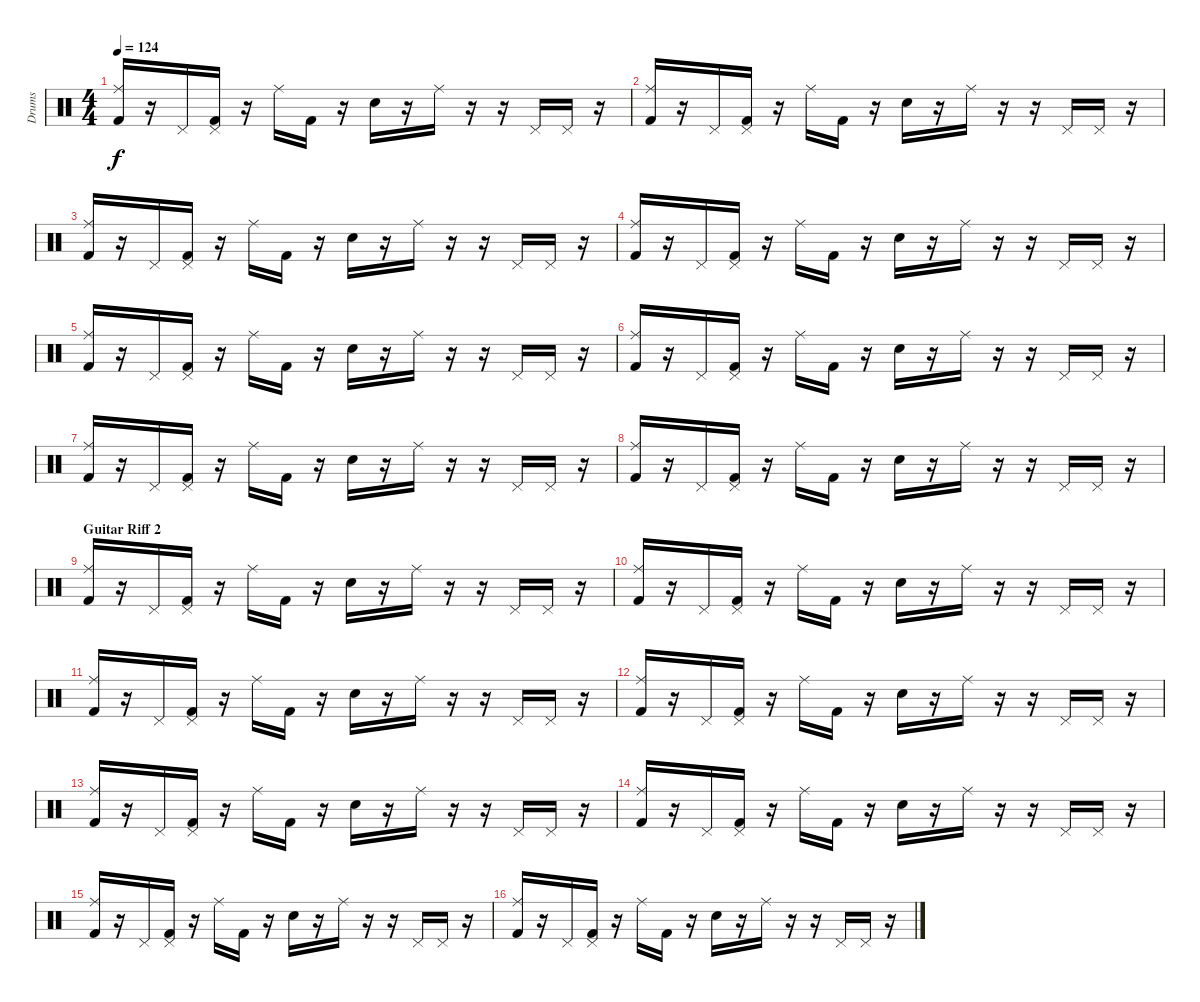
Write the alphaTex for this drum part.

\track ("Drums" "Drums") {instrument percussion}
\staff {score}
\articulation defaults
\ts (4 4)
\tempo 124
\clef neutral
\ks c
("Ride (middle)" "Kick (hit) 2").16{dy f} r.16 "Pedal Hi-Hat (hit)".16 ("Pedal Hi-Hat (hit)" "Kick (hit) 2").16 r.16 "Ride (middle)".16 "Kick (hit) 2".16 r.16 "Electric Snare (hit)".16 r.16 "Ride (middle)".16 r.16 r.16 "Pedal Hi-Hat (hit)".16 "Pedal Hi-Hat (hit)".16 r.16 |
("Ride (middle)" "Kick (hit) 2").16 r.16 "Pedal Hi-Hat (hit)".16 ("Pedal Hi-Hat (hit)" "Kick (hit) 2").16 r.16 "Ride (middle)".16 "Kick (hit) 2".16 r.16 "Electric Snare (hit)".16 r.16 "Ride (middle)".16 r.16 r.16 "Pedal Hi-Hat (hit)".16 "Pedal Hi-Hat (hit)".16 r.16 |
("Ride (middle)" "Kick (hit) 2").16 r.16 "Pedal Hi-Hat (hit)".16 ("Pedal Hi-Hat (hit)" "Kick (hit) 2").16 r.16 "Ride (middle)".16 "Kick (hit) 2".16 r.16 "Electric Snare (hit)".16 r.16 "Ride (middle)".16 r.16 r.16 "Pedal Hi-Hat (hit)".16 "Pedal Hi-Hat (hit)".16 r.16 |
("Ride (middle)" "Kick (hit) 2").16 r.16 "Pedal Hi-Hat (hit)".16 ("Pedal Hi-Hat (hit)" "Kick (hit) 2").16 r.16 "Ride (middle)".16 "Kick (hit) 2".16 r.16 "Electric Snare (hit)".16 r.16 "Ride (middle)".16 r.16 r.16 "Pedal Hi-Hat (hit)".16 "Pedal Hi-Hat (hit)".16 r.16 |
("Ride (middle)" "Kick (hit) 2").16 r.16 "Pedal Hi-Hat (hit)".16 ("Pedal Hi-Hat (hit)" "Kick (hit) 2").16 r.16 "Ride (middle)".16 "Kick (hit) 2".16 r.16 "Electric Snare (hit)".16 r.16 "Ride (middle)".16 r.16 r.16 "Pedal Hi-Hat (hit)".16 "Pedal Hi-Hat (hit)".16 r.16 |
("Ride (middle)" "Kick (hit) 2").16 r.16 "Pedal Hi-Hat (hit)".16 ("Pedal Hi-Hat (hit)" "Kick (hit) 2").16 r.16 "Ride (middle)".16 "Kick (hit) 2".16 r.16 "Electric Snare (hit)".16 r.16 "Ride (middle)".16 r.16 r.16 "Pedal Hi-Hat (hit)".16 "Pedal Hi-Hat (hit)".16 r.16 |
("Ride (middle)" "Kick (hit) 2").16 r.16 "Pedal Hi-Hat (hit)".16 ("Pedal Hi-Hat (hit)" "Kick (hit) 2").16 r.16 "Ride (middle)".16 "Kick (hit) 2".16 r.16 "Electric Snare (hit)".16 r.16 "Ride (middle)".16 r.16 r.16 "Pedal Hi-Hat (hit)".16 "Pedal Hi-Hat (hit)".16 r.16 |
("Ride (middle)" "Kick (hit) 2").16 r.16 "Pedal Hi-Hat (hit)".16 ("Pedal Hi-Hat (hit)" "Kick (hit) 2").16 r.16 "Ride (middle)".16 "Kick (hit) 2".16 r.16 "Electric Snare (hit)".16 r.16 "Ride (middle)".16 r.16 r.16 "Pedal Hi-Hat (hit)".16 "Pedal Hi-Hat (hit)".16 r.16 |
\section ("" "Guitar Riff 2")
("Ride (middle)" "Kick (hit) 2").16 r.16 "Pedal Hi-Hat (hit)".16 ("Pedal Hi-Hat (hit)" "Kick (hit) 2").16 r.16 "Ride (middle)".16 "Kick (hit) 2".16 r.16 "Electric Snare (hit)".16 r.16 "Ride (middle)".16 r.16 r.16 "Pedal Hi-Hat (hit)".16 "Pedal Hi-Hat (hit)".16 r.16 |
("Ride (middle)" "Kick (hit) 2").16 r.16 "Pedal Hi-Hat (hit)".16 ("Pedal Hi-Hat (hit)" "Kick (hit) 2").16 r.16 "Ride (middle)".16 "Kick (hit) 2".16 r.16 "Electric Snare (hit)".16 r.16 "Ride (middle)".16 r.16 r.16 "Pedal Hi-Hat (hit)".16 "Pedal Hi-Hat (hit)".16 r.16 |
("Ride (middle)" "Kick (hit) 2").16 r.16 "Pedal Hi-Hat (hit)".16 ("Pedal Hi-Hat (hit)" "Kick (hit) 2").16 r.16 "Ride (middle)".16 "Kick (hit) 2".16 r.16 "Electric Snare (hit)".16 r.16 "Ride (middle)".16 r.16 r.16 "Pedal Hi-Hat (hit)".16 "Pedal Hi-Hat (hit)".16 r.16 |
("Ride (middle)" "Kick (hit) 2").16 r.16 "Pedal Hi-Hat (hit)".16 ("Pedal Hi-Hat (hit)" "Kick (hit) 2").16 r.16 "Ride (middle)".16 "Kick (hit) 2".16 r.16 "Electric Snare (hit)".16 r.16 "Ride (middle)".16 r.16 r.16 "Pedal Hi-Hat (hit)".16 "Pedal Hi-Hat (hit)".16 r.16 |
("Ride (middle)" "Kick (hit) 2").16 r.16 "Pedal Hi-Hat (hit)".16 ("Pedal Hi-Hat (hit)" "Kick (hit) 2").16 r.16 "Ride (middle)".16 "Kick (hit) 2".16 r.16 "Electric Snare (hit)".16 r.16 "Ride (middle)".16 r.16 r.16 "Pedal Hi-Hat (hit)".16 "Pedal Hi-Hat (hit)".16 r.16 |
("Ride (middle)" "Kick (hit) 2").16 r.16 "Pedal Hi-Hat (hit)".16 ("Pedal Hi-Hat (hit)" "Kick (hit) 2").16 r.16 "Ride (middle)".16 "Kick (hit) 2".16 r.16 "Electric Snare (hit)".16 r.16 "Ride (middle)".16 r.16 r.16 "Pedal Hi-Hat (hit)".16 "Pedal Hi-Hat (hit)".16 r.16 |
("Ride (middle)" "Kick (hit) 2").16 r.16 "Pedal Hi-Hat (hit)".16 ("Pedal Hi-Hat (hit)" "Kick (hit) 2").16 r.16 "Ride (middle)".16 "Kick (hit) 2".16 r.16 "Electric Snare (hit)".16 r.16 "Ride (middle)".16 r.16 r.16 "Pedal Hi-Hat (hit)".16 "Pedal Hi-Hat (hit)".16 r.16 |
("Ride (middle)" "Kick (hit) 2").16 r.16 "Pedal Hi-Hat (hit)".16 ("Pedal Hi-Hat (hit)" "Kick (hit) 2").16 r.16 "Ride (middle)".16 "Kick (hit) 2".16 r.16 "Electric Snare (hit)".16 r.16 "Ride (middle)".16 r.16 r.16 "Pedal Hi-Hat (hit)".16 "Pedal Hi-Hat (hit)".16 r.16
